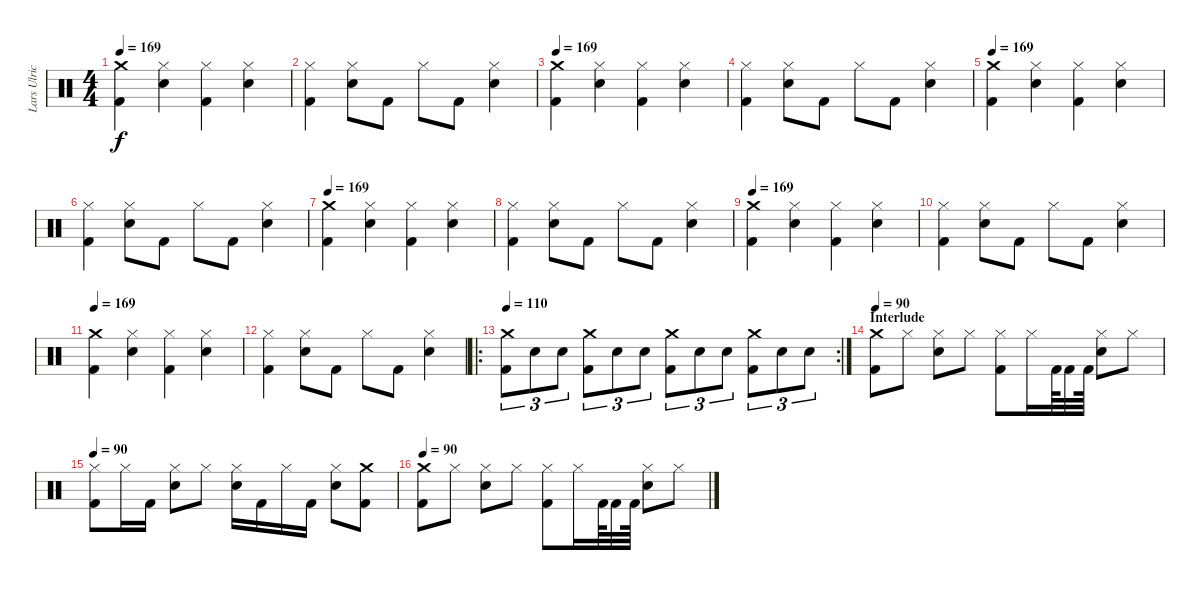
\track ("Lars Ulrich (Drums)" "Lars Ulric") {instrument percussion}
\staff {score}
\articulation defaults
\ts (4 4)
\tempo 169
\clef neutral
\ks c
("Kick (hit) 2" "Crash medium (hit)").4{dy f} ("Hi-Hat (closed)" "Snare (hit) 2").4 ("Hi-Hat (closed)" "Kick (hit) 2").4 ("Snare (hit) 2" "Hi-Hat (closed)").4 |
("Hi-Hat (closed)" "Kick (hit) 2").4 ("Snare (hit) 2" "Hi-Hat (closed)").8 "Kick (hit) 2".8 "Hi-Hat (closed)".8 "Kick (hit) 2".8 ("Snare (hit) 2" "Hi-Hat (closed)").4 |
\tempo 169
("Kick (hit) 2" "Crash medium (hit)").4 ("Hi-Hat (closed)" "Snare (hit) 2").4 ("Hi-Hat (closed)" "Kick (hit) 2").4 ("Snare (hit) 2" "Hi-Hat (closed)").4 |
("Hi-Hat (closed)" "Kick (hit) 2").4 ("Snare (hit) 2" "Hi-Hat (closed)").8 "Kick (hit) 2".8 "Hi-Hat (closed)".8 "Kick (hit) 2".8 ("Snare (hit) 2" "Hi-Hat (closed)").4 |
\tempo 169
("Kick (hit) 2" "Crash medium (hit)").4 ("Hi-Hat (closed)" "Snare (hit) 2").4 ("Hi-Hat (closed)" "Kick (hit) 2").4 ("Snare (hit) 2" "Hi-Hat (closed)").4 |
("Hi-Hat (closed)" "Kick (hit) 2").4 ("Snare (hit) 2" "Hi-Hat (closed)").8 "Kick (hit) 2".8 "Hi-Hat (closed)".8 "Kick (hit) 2".8 ("Snare (hit) 2" "Hi-Hat (closed)").4 |
\tempo 169
("Kick (hit) 2" "Crash medium (hit)").4 ("Hi-Hat (closed)" "Snare (hit) 2").4 ("Hi-Hat (closed)" "Kick (hit) 2").4 ("Snare (hit) 2" "Hi-Hat (closed)").4 |
("Hi-Hat (closed)" "Kick (hit) 2").4 ("Snare (hit) 2" "Hi-Hat (closed)").8 "Kick (hit) 2".8 "Hi-Hat (closed)".8 "Kick (hit) 2".8 ("Snare (hit) 2" "Hi-Hat (closed)").4 |
\tempo 169
("Kick (hit) 2" "Crash medium (hit)").4 ("Hi-Hat (closed)" "Snare (hit) 2").4 ("Hi-Hat (closed)" "Kick (hit) 2").4 ("Snare (hit) 2" "Hi-Hat (closed)").4 |
("Hi-Hat (closed)" "Kick (hit) 2").4 ("Snare (hit) 2" "Hi-Hat (closed)").8 "Kick (hit) 2".8 "Hi-Hat (closed)".8 "Kick (hit) 2".8 ("Snare (hit) 2" "Hi-Hat (closed)").4 |
\tempo 169
("Kick (hit) 2" "Crash medium (hit)").4 ("Hi-Hat (closed)" "Snare (hit) 2").4 ("Hi-Hat (closed)" "Kick (hit) 2").4 ("Snare (hit) 2" "Hi-Hat (closed)").4 |
("Hi-Hat (closed)" "Kick (hit) 2").4 ("Snare (hit) 2" "Hi-Hat (closed)").8 "Kick (hit) 2".8 "Hi-Hat (closed)".8 "Kick (hit) 2".8 ("Snare (hit) 2" "Hi-Hat (closed)").4 |
\ro
\rc 2
\tempo 110
("Kick (hit) 2" "Crash medium (hit)").8{tu (3 2)} "Snare (hit) 2".8{tu (3 2)} "Snare (hit) 2".8{tu (3 2)} ("Kick (hit) 2" "Crash medium (hit)").8{tu (3 2)} "Snare (hit) 2".8{tu (3 2)} "Snare (hit) 2".8{tu (3 2)} ("Kick (hit) 2" "Crash medium (hit)").8{tu (3 2)} "Snare (hit) 2".8{tu (3 2)} "Snare (hit) 2".8{tu (3 2)} ("Kick (hit) 2" "Crash medium (hit)").8{tu (3 2)} "Snare (hit) 2".8{tu (3 2)} "Snare (hit) 2".8{tu (3 2)} |
\section ("" "Interlude")
\tempo 90
("Crash medium (hit)" "Kick (hit) 2").8 "Hi-Hat (closed)".8 ("Snare (hit) 2" "Hi-Hat (closed)").8 "Hi-Hat (closed)".8 ("Hi-Hat (closed)" "Kick (hit) 2").8 "Hi-Hat (closed)".16 "Kick (hit) 2".64 "Kick (hit) 2".32 "Kick (hit) 2".64 ("Snare (hit) 2" "Hi-Hat (closed)").8 "Hi-Hat (closed)".8 |
\tempo 90
("Hi-Hat (closed)" "Kick (hit) 2").8 "Hi-Hat (closed)".16 "Kick (hit) 2".16 ("Snare (hit) 2" "Hi-Hat (closed)").8 "Hi-Hat (closed)".8 ("Snare (hit) 2" "Hi-Hat (closed)").16 "Kick (hit) 2".16 "Hi-Hat (closed)".16 "Kick (hit) 2".16 ("Snare (hit) 2" "Hi-Hat (closed)").8 ("Crash medium (hit)" "Kick (hit) 2").8 |
\tempo 90
("Crash medium (hit)" "Kick (hit) 2").8 "Hi-Hat (closed)".8 ("Snare (hit) 2" "Hi-Hat (closed)").8 "Hi-Hat (closed)".8 ("Hi-Hat (closed)" "Kick (hit) 2").8 "Hi-Hat (closed)".16 "Kick (hit) 2".64 "Kick (hit) 2".32 "Kick (hit) 2".64 ("Snare (hit) 2" "Hi-Hat (closed)").8 "Hi-Hat (closed)".8
